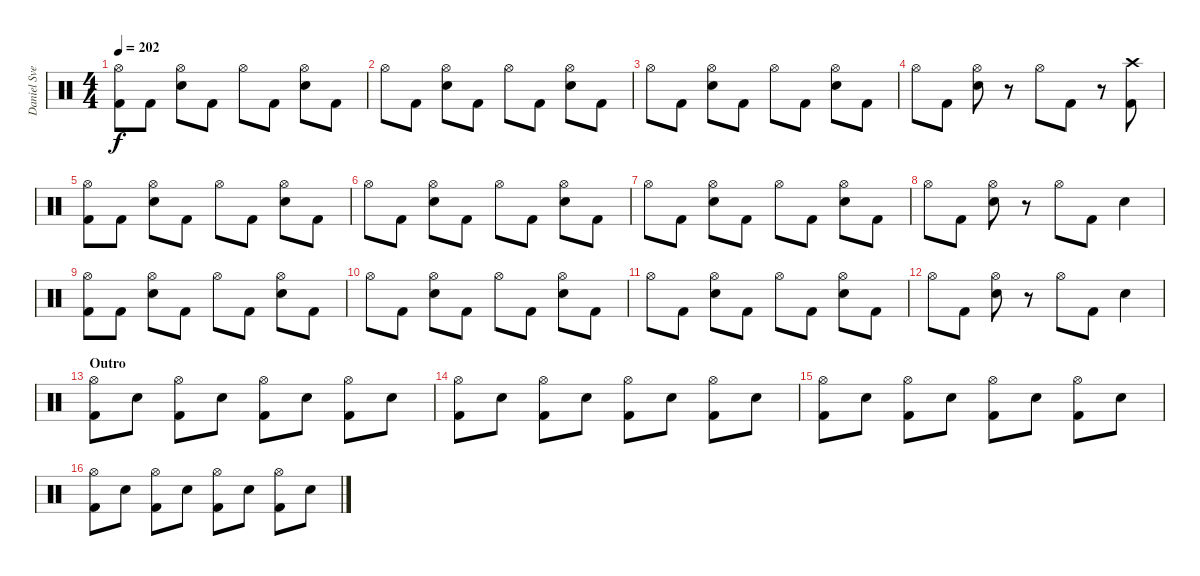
\track ("Daniel Svensson" "Daniel Sve") {instrument percussion}
\staff {score}
\articulation defaults
\ts (4 4)
\tempo 202
\clef neutral
\ks c
("Hi-Hat (open)" "Kick (hit) 2").8{dy f} "Kick (hit) 2".8 ("Hi-Hat (open)" "Electric Snare (hit)").8 "Kick (hit) 2".8 "Hi-Hat (open)".8 "Kick (hit) 2".8 ("Hi-Hat (open)" "Electric Snare (hit)").8 "Kick (hit) 2".8 |
"Hi-Hat (open)".8 "Kick (hit) 2".8 ("Hi-Hat (open)" "Electric Snare (hit)").8 "Kick (hit) 2".8 "Hi-Hat (open)".8 "Kick (hit) 2".8 ("Hi-Hat (open)" "Electric Snare (hit)").8 "Kick (hit) 2".8 |
"Hi-Hat (open)".8 "Kick (hit) 2".8 ("Hi-Hat (open)" "Electric Snare (hit)").8 "Kick (hit) 2".8 "Hi-Hat (open)".8 "Kick (hit) 2".8 ("Hi-Hat (open)" "Electric Snare (hit)").8 "Kick (hit) 2".8 |
"Hi-Hat (open)".8 "Kick (hit) 2".8 ("Hi-Hat (open)" "Electric Snare (hit)").8 r.8 "Hi-Hat (open)".8 "Kick (hit) 2".8 r.8 ("Crash high (hit)" "Kick (hit) 2").8 |
("Hi-Hat (open)" "Kick (hit) 2").8 "Kick (hit) 2".8 ("Hi-Hat (open)" "Electric Snare (hit)").8 "Kick (hit) 2".8 "Hi-Hat (open)".8 "Kick (hit) 2".8 ("Hi-Hat (open)" "Electric Snare (hit)").8 "Kick (hit) 2".8 |
"Hi-Hat (open)".8 "Kick (hit) 2".8 ("Hi-Hat (open)" "Electric Snare (hit)").8 "Kick (hit) 2".8 "Hi-Hat (open)".8 "Kick (hit) 2".8 ("Hi-Hat (open)" "Electric Snare (hit)").8 "Kick (hit) 2".8 |
"Hi-Hat (open)".8 "Kick (hit) 2".8 ("Hi-Hat (open)" "Electric Snare (hit)").8 "Kick (hit) 2".8 "Hi-Hat (open)".8 "Kick (hit) 2".8 ("Hi-Hat (open)" "Electric Snare (hit)").8 "Kick (hit) 2".8 |
"Hi-Hat (open)".8 "Kick (hit) 2".8 ("Hi-Hat (open)" "Electric Snare (hit)").8 r.8 "Hi-Hat (open)".8 "Kick (hit) 2".8 "Electric Snare (hit)".4 |
("Hi-Hat (open)" "Kick (hit) 2").8 "Kick (hit) 2".8 ("Hi-Hat (open)" "Electric Snare (hit)").8 "Kick (hit) 2".8 "Hi-Hat (open)".8 "Kick (hit) 2".8 ("Hi-Hat (open)" "Electric Snare (hit)").8 "Kick (hit) 2".8 |
"Hi-Hat (open)".8 "Kick (hit) 2".8 ("Hi-Hat (open)" "Electric Snare (hit)").8 "Kick (hit) 2".8 "Hi-Hat (open)".8 "Kick (hit) 2".8 ("Hi-Hat (open)" "Electric Snare (hit)").8 "Kick (hit) 2".8 |
"Hi-Hat (open)".8 "Kick (hit) 2".8 ("Hi-Hat (open)" "Electric Snare (hit)").8 "Kick (hit) 2".8 "Hi-Hat (open)".8 "Kick (hit) 2".8 ("Hi-Hat (open)" "Electric Snare (hit)").8 "Kick (hit) 2".8 |
"Hi-Hat (open)".8 "Kick (hit) 2".8 ("Hi-Hat (open)" "Electric Snare (hit)").8 r.8 "Hi-Hat (open)".8 "Kick (hit) 2".8 "Electric Snare (hit)".4 |
\section ("" "Outro")
("Hi-Hat (open)" "Kick (hit) 2").8 "Electric Snare (hit)".8 ("Hi-Hat (open)" "Kick (hit) 2").8 "Electric Snare (hit)".8 ("Hi-Hat (open)" "Kick (hit) 2").8 "Electric Snare (hit)".8 ("Hi-Hat (open)" "Kick (hit) 2").8 "Electric Snare (hit)".8 |
("Hi-Hat (open)" "Kick (hit) 2").8 "Electric Snare (hit)".8 ("Hi-Hat (open)" "Kick (hit) 2").8 "Electric Snare (hit)".8 ("Hi-Hat (open)" "Kick (hit) 2").8 "Electric Snare (hit)".8 ("Hi-Hat (open)" "Kick (hit) 2").8 "Electric Snare (hit)".8 |
("Hi-Hat (open)" "Kick (hit) 2").8 "Electric Snare (hit)".8 ("Hi-Hat (open)" "Kick (hit) 2").8 "Electric Snare (hit)".8 ("Hi-Hat (open)" "Kick (hit) 2").8 "Electric Snare (hit)".8 ("Hi-Hat (open)" "Kick (hit) 2").8 "Electric Snare (hit)".8 |
("Hi-Hat (open)" "Kick (hit) 2").8 "Electric Snare (hit)".8 ("Hi-Hat (open)" "Kick (hit) 2").8 "Electric Snare (hit)".8 ("Hi-Hat (open)" "Kick (hit) 2").8 "Electric Snare (hit)".8 ("Hi-Hat (open)" "Kick (hit) 2").8 "Electric Snare (hit)".8
